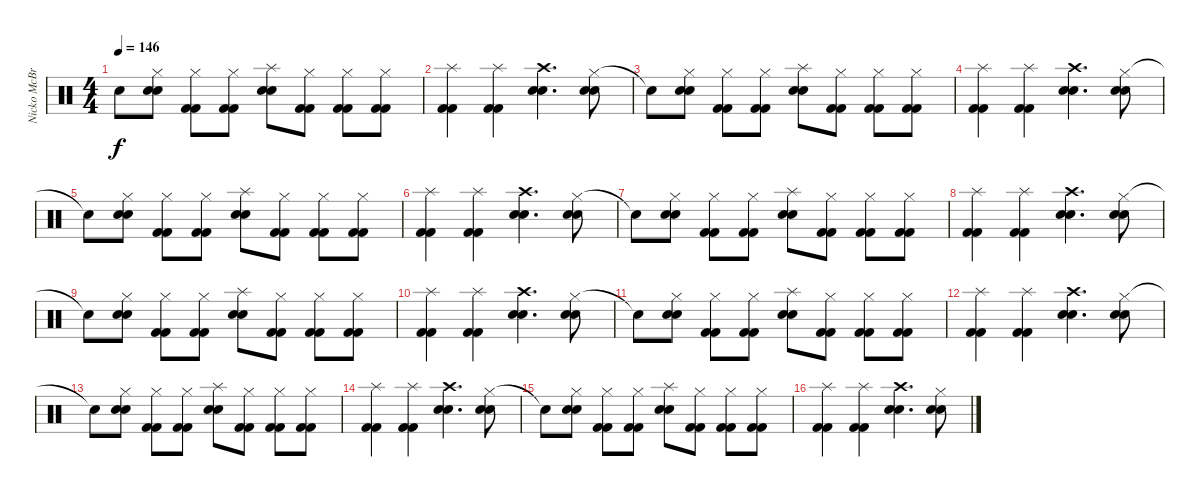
\track ("Nicko McBrain" "Nicko McBr") {instrument percussion}
\staff {score}
\articulation defaults
\ts (4 4)
\tempo 146
\clef neutral
\ks c "Snare (hit) 2"{t}.8{dy f}
("Hi-Hat (closed)" "Snare (hit) 2" "Snare (hit) 2").8 ("Hi-Hat (closed)" "Kick (hit) 2" "Kick (hit) 2").8 ("Hi-Hat (closed)" "Kick (hit) 2" "Kick (hit) 2").8 ("Splash (hit)" "Snare (hit) 2" "Snare (hit) 2").8 ("Hi-Hat (closed)" "Kick (hit) 2" "Kick (hit) 2").8 ("Hi-Hat (closed)" "Kick (hit) 2" "Kick (hit) 2").8 ("Hi-Hat (closed)" "Kick (hit) 2" "Kick (hit) 2").8 |
("Splash (hit)" "Kick (hit) 2" "Kick (hit) 2").4 ("Splash (hit)" "Kick (hit) 2" "Kick (hit) 2").4 ("Crash high (hit)" "Snare (hit) 2" "Snare (hit) 2").4{d} ("Hi-Hat (closed)" "Snare (hit) 2" "Snare (hit) 2").8 |
"Snare (hit) 2"{t}.8 ("Hi-Hat (closed)" "Snare (hit) 2" "Snare (hit) 2").8 ("Hi-Hat (closed)" "Kick (hit) 2" "Kick (hit) 2").8 ("Hi-Hat (closed)" "Kick (hit) 2" "Kick (hit) 2").8 ("Splash (hit)" "Snare (hit) 2" "Snare (hit) 2").8 ("Hi-Hat (closed)" "Kick (hit) 2" "Kick (hit) 2").8 ("Hi-Hat (closed)" "Kick (hit) 2" "Kick (hit) 2").8 ("Hi-Hat (closed)" "Kick (hit) 2" "Kick (hit) 2").8 |
("Splash (hit)" "Kick (hit) 2" "Kick (hit) 2").4 ("Splash (hit)" "Kick (hit) 2" "Kick (hit) 2").4 ("Crash high (hit)" "Snare (hit) 2" "Snare (hit) 2").4{d} ("Hi-Hat (closed)" "Snare (hit) 2" "Snare (hit) 2").8 |
"Snare (hit) 2"{t}.8 ("Hi-Hat (closed)" "Snare (hit) 2" "Snare (hit) 2").8 ("Hi-Hat (closed)" "Kick (hit) 2" "Kick (hit) 2").8 ("Hi-Hat (closed)" "Kick (hit) 2" "Kick (hit) 2").8 ("Splash (hit)" "Snare (hit) 2" "Snare (hit) 2").8 ("Hi-Hat (closed)" "Kick (hit) 2" "Kick (hit) 2").8 ("Hi-Hat (closed)" "Kick (hit) 2" "Kick (hit) 2").8 ("Hi-Hat (closed)" "Kick (hit) 2" "Kick (hit) 2").8 |
("Splash (hit)" "Kick (hit) 2" "Kick (hit) 2").4 ("Splash (hit)" "Kick (hit) 2" "Kick (hit) 2").4 ("Crash high (hit)" "Snare (hit) 2" "Snare (hit) 2").4{d} ("Hi-Hat (closed)" "Snare (hit) 2" "Snare (hit) 2").8 |
"Snare (hit) 2"{t}.8 ("Hi-Hat (closed)" "Snare (hit) 2" "Snare (hit) 2").8 ("Hi-Hat (closed)" "Kick (hit) 2" "Kick (hit) 2").8 ("Hi-Hat (closed)" "Kick (hit) 2" "Kick (hit) 2").8 ("Splash (hit)" "Snare (hit) 2" "Snare (hit) 2").8 ("Hi-Hat (closed)" "Kick (hit) 2" "Kick (hit) 2").8 ("Hi-Hat (closed)" "Kick (hit) 2" "Kick (hit) 2").8 ("Hi-Hat (closed)" "Kick (hit) 2" "Kick (hit) 2").8 |
("Splash (hit)" "Kick (hit) 2" "Kick (hit) 2").4 ("Splash (hit)" "Kick (hit) 2" "Kick (hit) 2").4 ("Crash high (hit)" "Snare (hit) 2" "Snare (hit) 2").4{d} ("Hi-Hat (closed)" "Snare (hit) 2" "Snare (hit) 2").8 |
"Snare (hit) 2"{t}.8 ("Hi-Hat (closed)" "Snare (hit) 2" "Snare (hit) 2").8 ("Hi-Hat (closed)" "Kick (hit) 2" "Kick (hit) 2").8 ("Hi-Hat (closed)" "Kick (hit) 2" "Kick (hit) 2").8 ("Splash (hit)" "Snare (hit) 2" "Snare (hit) 2").8 ("Hi-Hat (closed)" "Kick (hit) 2" "Kick (hit) 2").8 ("Hi-Hat (closed)" "Kick (hit) 2" "Kick (hit) 2").8 ("Hi-Hat (closed)" "Kick (hit) 2" "Kick (hit) 2").8 |
("Splash (hit)" "Kick (hit) 2" "Kick (hit) 2").4 ("Splash (hit)" "Kick (hit) 2" "Kick (hit) 2").4 ("Crash high (hit)" "Snare (hit) 2" "Snare (hit) 2").4{d} ("Hi-Hat (closed)" "Snare (hit) 2" "Snare (hit) 2").8 |
"Snare (hit) 2"{t}.8 ("Hi-Hat (closed)" "Snare (hit) 2" "Snare (hit) 2").8 ("Hi-Hat (closed)" "Kick (hit) 2" "Kick (hit) 2").8 ("Hi-Hat (closed)" "Kick (hit) 2" "Kick (hit) 2").8 ("Splash (hit)" "Snare (hit) 2" "Snare (hit) 2").8 ("Hi-Hat (closed)" "Kick (hit) 2" "Kick (hit) 2").8 ("Hi-Hat (closed)" "Kick (hit) 2" "Kick (hit) 2").8 ("Hi-Hat (closed)" "Kick (hit) 2" "Kick (hit) 2").8 |
("Splash (hit)" "Kick (hit) 2" "Kick (hit) 2").4 ("Splash (hit)" "Kick (hit) 2" "Kick (hit) 2").4 ("Crash high (hit)" "Snare (hit) 2" "Snare (hit) 2").4{d} ("Hi-Hat (closed)" "Snare (hit) 2" "Snare (hit) 2").8 |
"Snare (hit) 2"{t}.8 ("Hi-Hat (closed)" "Snare (hit) 2" "Snare (hit) 2").8 ("Hi-Hat (closed)" "Kick (hit) 2" "Kick (hit) 2").8 ("Hi-Hat (closed)" "Kick (hit) 2" "Kick (hit) 2").8 ("Splash (hit)" "Snare (hit) 2" "Snare (hit) 2").8 ("Hi-Hat (closed)" "Kick (hit) 2" "Kick (hit) 2").8 ("Hi-Hat (closed)" "Kick (hit) 2" "Kick (hit) 2").8 ("Hi-Hat (closed)" "Kick (hit) 2" "Kick (hit) 2").8 |
("Splash (hit)" "Kick (hit) 2" "Kick (hit) 2").4 ("Splash (hit)" "Kick (hit) 2" "Kick (hit) 2").4 ("Crash high (hit)" "Snare (hit) 2" "Snare (hit) 2").4{d} ("Hi-Hat (closed)" "Snare (hit) 2" "Snare (hit) 2").8 |
"Snare (hit) 2"{t}.8 ("Hi-Hat (closed)" "Snare (hit) 2" "Snare (hit) 2").8 ("Hi-Hat (closed)" "Kick (hit) 2" "Kick (hit) 2").8 ("Hi-Hat (closed)" "Kick (hit) 2" "Kick (hit) 2").8 ("Splash (hit)" "Snare (hit) 2" "Snare (hit) 2").8 ("Hi-Hat (closed)" "Kick (hit) 2" "Kick (hit) 2").8 ("Hi-Hat (closed)" "Kick (hit) 2" "Kick (hit) 2").8 ("Hi-Hat (closed)" "Kick (hit) 2" "Kick (hit) 2").8 |
("Splash (hit)" "Kick (hit) 2" "Kick (hit) 2").4 ("Splash (hit)" "Kick (hit) 2" "Kick (hit) 2").4 ("Crash high (hit)" "Snare (hit) 2" "Snare (hit) 2").4{d} ("Hi-Hat (closed)" "Snare (hit) 2" "Snare (hit) 2").8
